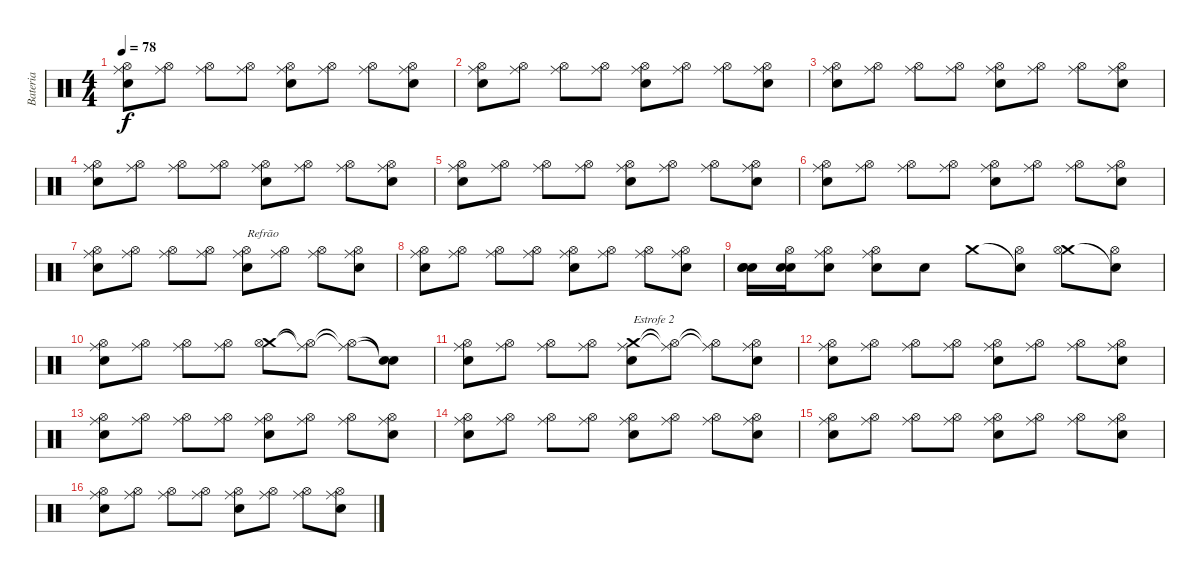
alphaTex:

\track ("Bateria" "Bateria") {instrument percussion}
\staff {score}
\articulation defaults
\ts (4 4)
\tempo 78
\clef neutral
\ks c
("Hi-Hat (open)" "Ride (middle)" "Snare (hit) 2").8{dy f} ("Hi-Hat (open)" "Ride (middle)").8 ("Hi-Hat (open)" "Ride (middle)").8 ("Hi-Hat (open)" "Ride (middle)").8 ("Hi-Hat (open)" "Ride (middle)" "Snare (hit) 2").8 ("Hi-Hat (open)" "Ride (middle)").8 ("Hi-Hat (open)" "Ride (middle)").8 ("Hi-Hat (open)" "Ride (middle)" "Snare (hit) 2").8 |
("Hi-Hat (open)" "Ride (middle)" "Snare (hit) 2").8 ("Hi-Hat (open)" "Ride (middle)").8 ("Hi-Hat (open)" "Ride (middle)").8 ("Hi-Hat (open)" "Ride (middle)").8 ("Hi-Hat (open)" "Ride (middle)" "Snare (hit) 2").8 ("Hi-Hat (open)" "Ride (middle)").8 ("Hi-Hat (open)" "Ride (middle)").8 ("Hi-Hat (open)" "Ride (middle)" "Snare (hit) 2").8 |
("Hi-Hat (open)" "Ride (middle)" "Snare (hit) 2").8 ("Hi-Hat (open)" "Ride (middle)").8 ("Hi-Hat (open)" "Ride (middle)").8 ("Hi-Hat (open)" "Ride (middle)").8 ("Hi-Hat (open)" "Ride (middle)" "Snare (hit) 2").8 ("Hi-Hat (open)" "Ride (middle)").8 ("Hi-Hat (open)" "Ride (middle)").8 ("Hi-Hat (open)" "Ride (middle)" "Snare (hit) 2").8 |
("Hi-Hat (open)" "Ride (middle)" "Snare (hit) 2").8 ("Hi-Hat (open)" "Ride (middle)").8 ("Hi-Hat (open)" "Ride (middle)").8 ("Hi-Hat (open)" "Ride (middle)").8 ("Hi-Hat (open)" "Ride (middle)" "Snare (hit) 2").8 ("Hi-Hat (open)" "Ride (middle)").8 ("Hi-Hat (open)" "Ride (middle)").8 ("Hi-Hat (open)" "Ride (middle)" "Snare (hit) 2").8 |
("Hi-Hat (open)" "Ride (middle)" "Snare (hit) 2").8 ("Hi-Hat (open)" "Ride (middle)").8 ("Hi-Hat (open)" "Ride (middle)").8 ("Hi-Hat (open)" "Ride (middle)").8 ("Hi-Hat (open)" "Ride (middle)" "Snare (hit) 2").8 ("Hi-Hat (open)" "Ride (middle)").8 ("Hi-Hat (open)" "Ride (middle)").8 ("Hi-Hat (open)" "Ride (middle)" "Snare (hit) 2").8 |
("Hi-Hat (open)" "Ride (middle)" "Snare (hit) 2").8 ("Hi-Hat (open)" "Ride (middle)").8 ("Hi-Hat (open)" "Ride (middle)").8 ("Hi-Hat (open)" "Ride (middle)").8 ("Hi-Hat (open)" "Ride (middle)" "Snare (hit) 2").8 ("Hi-Hat (open)" "Ride (middle)").8 ("Hi-Hat (open)" "Ride (middle)").8 ("Hi-Hat (open)" "Ride (middle)" "Snare (hit) 2").8 |
("Hi-Hat (open)" "Ride (middle)" "Snare (hit) 2").8 ("Hi-Hat (open)" "Ride (middle)").8 ("Hi-Hat (open)" "Ride (middle)").8 ("Hi-Hat (open)" "Ride (middle)").8 ("Hi-Hat (open)" "Ride (middle)" "Snare (hit) 2").8{txt "Refrão"} ("Hi-Hat (open)" "Ride (middle)").8 ("Hi-Hat (open)" "Ride (middle)").8 ("Hi-Hat (open)" "Ride (middle)" "Snare (hit) 2").8 |
("Hi-Hat (open)" "Ride (middle)" "Snare (hit) 2").8 ("Hi-Hat (open)" "Ride (middle)").8 ("Hi-Hat (open)" "Ride (middle)").8 ("Hi-Hat (open)" "Ride (middle)").8 ("Hi-Hat (open)" "Ride (middle)" "Snare (hit) 2").8 ("Hi-Hat (open)" "Ride (middle)").8 ("Hi-Hat (open)" "Ride (middle)").8 ("Hi-Hat (open)" "Ride (middle)" "Snare (hit) 2").8 |
("Electric Snare (hit)" "Electric Snare (hit)" "Electric Snare (hit)").16 ("Hi-Hat (open)" "Snare (hit) 2" "Electric Snare (hit)").16 ("Hi-Hat (open)" "Ride (middle)" "Electric Snare (hit)").8 ("Hi-Hat (open)" "Ride (middle)" "Snare (hit) 2").8 "Electric Snare (hit)".8 "Crash medium (hit)".8 ("Snare (hit)"{t} "Hi-Hat (open)").8 ("Crash medium (hit)" "Hi-Hat (open)").8 ("Snare (hit)"{t} "Hi-Hat (open)").8 |
("Hi-Hat (open)" "Ride (middle)" "Snare (hit) 2").8 ("Hi-Hat (open)" "Ride (middle)").8 ("Hi-Hat (open)" "Ride (middle)").8 ("Hi-Hat (open)" "Ride (middle)").8 ("Crash medium (hit)" "Hi-Hat (open)").8 ("Hi-Hat (open)"{t} "Ride (middle)"{t}).8 ("Hi-Hat (open)"{t} "Ride (middle)"{t}).8 ("Snare (hit)"{t} "Snare (hit)"{t}).8 |
("Hi-Hat (open)" "Ride (middle)" "Snare (hit) 2").8 ("Hi-Hat (open)" "Ride (middle)").8 ("Hi-Hat (open)" "Ride (middle)").8 ("Hi-Hat (open)" "Ride (middle)").8 ("Crash medium (hit)" "Ride (middle)" "Snare (hit) 2").8{txt "Estrofe 2"} ("Hi-Hat (open)"{t} "Ride (middle)"{t}).8 ("Hi-Hat (open)"{t} "Ride (middle)"{t}).8 ("Hi-Hat (open)" "Ride (middle)" "Snare (hit) 2").8 |
("Hi-Hat (open)" "Ride (middle)" "Snare (hit) 2").8 ("Hi-Hat (open)" "Ride (middle)").8 ("Hi-Hat (open)" "Ride (middle)").8 ("Hi-Hat (open)" "Ride (middle)").8 ("Hi-Hat (open)" "Ride (middle)" "Snare (hit) 2").8 ("Hi-Hat (open)" "Ride (middle)").8 ("Hi-Hat (open)" "Ride (middle)").8 ("Hi-Hat (open)" "Ride (middle)" "Snare (hit) 2").8 |
("Hi-Hat (open)" "Ride (middle)" "Snare (hit) 2").8 ("Hi-Hat (open)" "Ride (middle)").8 ("Hi-Hat (open)" "Ride (middle)").8 ("Hi-Hat (open)" "Ride (middle)").8 ("Hi-Hat (open)" "Ride (middle)" "Snare (hit) 2").8 ("Hi-Hat (open)" "Ride (middle)").8 ("Hi-Hat (open)" "Ride (middle)").8 ("Hi-Hat (open)" "Ride (middle)" "Snare (hit) 2").8 |
("Hi-Hat (open)" "Ride (middle)" "Snare (hit) 2").8 ("Hi-Hat (open)" "Ride (middle)").8 ("Hi-Hat (open)" "Ride (middle)").8 ("Hi-Hat (open)" "Ride (middle)").8 ("Hi-Hat (open)" "Ride (middle)" "Snare (hit) 2").8 ("Hi-Hat (open)" "Ride (middle)").8 ("Hi-Hat (open)" "Ride (middle)").8 ("Hi-Hat (open)" "Ride (middle)" "Snare (hit) 2").8 |
("Hi-Hat (open)" "Ride (middle)" "Snare (hit) 2").8 ("Hi-Hat (open)" "Ride (middle)").8 ("Hi-Hat (open)" "Ride (middle)").8 ("Hi-Hat (open)" "Ride (middle)").8 ("Hi-Hat (open)" "Ride (middle)" "Snare (hit) 2").8 ("Hi-Hat (open)" "Ride (middle)").8 ("Hi-Hat (open)" "Ride (middle)").8 ("Hi-Hat (open)" "Ride (middle)" "Snare (hit) 2").8 |
("Hi-Hat (open)" "Ride (middle)" "Snare (hit) 2").8 ("Hi-Hat (open)" "Ride (middle)").8 ("Hi-Hat (open)" "Ride (middle)").8 ("Hi-Hat (open)" "Ride (middle)").8 ("Hi-Hat (open)" "Ride (middle)" "Snare (hit) 2").8 ("Hi-Hat (open)" "Ride (middle)").8 ("Hi-Hat (open)" "Ride (middle)").8 ("Hi-Hat (open)" "Ride (middle)" "Snare (hit) 2").8
